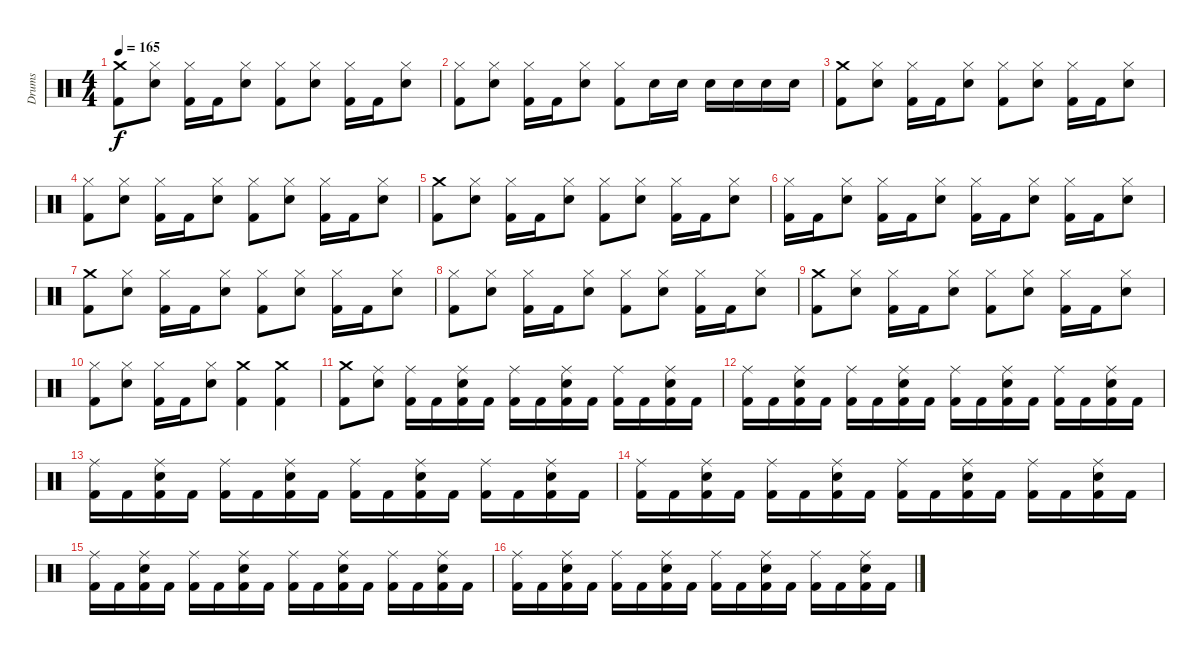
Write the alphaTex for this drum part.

\track ("Drums" "Drums") {instrument percussion}
\staff {score}
\articulation defaults
\ts (4 4)
\tempo 165
\clef neutral
\ks c
("Crash medium (hit)" "Kick (hit) 2").8{dy f} ("Hi-Hat (closed)" "Snare (hit) 2").8 ("Hi-Hat (closed)" "Kick (hit) 2").16 "Kick (hit) 2".16 ("Hi-Hat (closed)" "Snare (hit) 2").8 ("Hi-Hat (closed)" "Kick (hit) 2").8 ("Hi-Hat (closed)" "Snare (hit) 2").8 ("Hi-Hat (closed)" "Kick (hit) 2").16 "Kick (hit) 2".16 ("Hi-Hat (closed)" "Snare (hit) 2").8 |
("Hi-Hat (closed)" "Kick (hit) 2").8 ("Hi-Hat (closed)" "Snare (hit) 2").8 ("Hi-Hat (closed)" "Kick (hit) 2").16 "Kick (hit) 2".16 ("Hi-Hat (closed)" "Snare (hit) 2").8 ("Hi-Hat (closed)" "Kick (hit) 2").8 "Snare (hit) 2".16 "Snare (hit) 2".16 "Snare (hit) 2".16 "Snare (hit) 2".16 "Snare (hit) 2".16 "Snare (hit) 2".16 |
("Crash medium (hit)" "Kick (hit) 2").8 ("Hi-Hat (closed)" "Snare (hit) 2").8 ("Hi-Hat (closed)" "Kick (hit) 2").16 "Kick (hit) 2".16 ("Hi-Hat (closed)" "Snare (hit) 2").8 ("Hi-Hat (closed)" "Kick (hit) 2").8 ("Hi-Hat (closed)" "Snare (hit) 2").8 ("Hi-Hat (closed)" "Kick (hit) 2").16 "Kick (hit) 2".16 ("Hi-Hat (closed)" "Snare (hit) 2").8 |
("Hi-Hat (closed)" "Kick (hit) 2").8 ("Hi-Hat (closed)" "Snare (hit) 2").8 ("Hi-Hat (closed)" "Kick (hit) 2").16 "Kick (hit) 2".16 ("Hi-Hat (closed)" "Snare (hit) 2").8 ("Hi-Hat (closed)" "Kick (hit) 2").8 ("Hi-Hat (closed)" "Snare (hit) 2").8 ("Hi-Hat (closed)" "Kick (hit) 2").16 "Kick (hit) 2".16 ("Hi-Hat (closed)" "Snare (hit) 2").8 |
("Crash medium (hit)" "Kick (hit) 2").8 ("Hi-Hat (closed)" "Snare (hit) 2").8 ("Hi-Hat (closed)" "Kick (hit) 2").16 "Kick (hit) 2".16 ("Hi-Hat (closed)" "Snare (hit) 2").8 ("Hi-Hat (closed)" "Kick (hit) 2").8 ("Hi-Hat (closed)" "Snare (hit) 2").8 ("Hi-Hat (closed)" "Kick (hit) 2").16 "Kick (hit) 2".16 ("Hi-Hat (closed)" "Snare (hit) 2").8 |
("Hi-Hat (closed)" "Kick (hit) 2").16 "Kick (hit) 2".16 ("Hi-Hat (closed)" "Snare (hit) 2").8 ("Hi-Hat (closed)" "Kick (hit) 2").16 "Kick (hit) 2".16 ("Hi-Hat (closed)" "Snare (hit) 2").8 ("Hi-Hat (closed)" "Kick (hit) 2").16 "Kick (hit) 2".16 ("Hi-Hat (closed)" "Snare (hit) 2").8 ("Hi-Hat (closed)" "Kick (hit) 2").16 "Kick (hit) 2".16 ("Hi-Hat (closed)" "Snare (hit) 2").8 |
("Crash medium (hit)" "Kick (hit) 2").8 ("Hi-Hat (closed)" "Snare (hit) 2").8 ("Hi-Hat (closed)" "Kick (hit) 2").16 "Kick (hit) 2".16 ("Hi-Hat (closed)" "Snare (hit) 2").8 ("Hi-Hat (closed)" "Kick (hit) 2").8 ("Hi-Hat (closed)" "Snare (hit) 2").8 ("Hi-Hat (closed)" "Kick (hit) 2").16 "Kick (hit) 2".16 ("Hi-Hat (closed)" "Snare (hit) 2").8 |
("Hi-Hat (closed)" "Kick (hit) 2").8 ("Hi-Hat (closed)" "Snare (hit) 2").8 ("Hi-Hat (closed)" "Kick (hit) 2").16 "Kick (hit) 2".16 ("Hi-Hat (closed)" "Snare (hit) 2").8 ("Hi-Hat (closed)" "Kick (hit) 2").8 ("Hi-Hat (closed)" "Snare (hit) 2").8 ("Hi-Hat (closed)" "Kick (hit) 2").16 "Kick (hit) 2".16 ("Hi-Hat (closed)" "Snare (hit) 2").8 |
("Crash medium (hit)" "Kick (hit) 2").8 ("Hi-Hat (closed)" "Snare (hit) 2").8 ("Hi-Hat (closed)" "Kick (hit) 2").16 "Kick (hit) 2".16 ("Hi-Hat (closed)" "Snare (hit) 2").8 ("Hi-Hat (closed)" "Kick (hit) 2").8 ("Hi-Hat (closed)" "Snare (hit) 2").8 ("Hi-Hat (closed)" "Kick (hit) 2").16 "Kick (hit) 2".16 ("Hi-Hat (closed)" "Snare (hit) 2").8 |
("Hi-Hat (closed)" "Kick (hit) 2").8 ("Hi-Hat (closed)" "Snare (hit) 2").8 ("Hi-Hat (closed)" "Kick (hit) 2").16 "Kick (hit) 2".16 ("Hi-Hat (closed)" "Snare (hit) 2").8 ("Crash medium (hit)" "Kick (hit) 2").4 ("Crash medium (hit)" "Kick (hit) 2").4 |
("Crash medium (hit)" "Kick (hit) 2").8 ("Ride (middle)" "Snare (hit) 2").8 ("Ride (middle)" "Kick (hit) 2").16 "Kick (hit) 2".16 ("Ride (middle)" "Snare (hit) 2" "Kick (hit) 2").16 "Kick (hit) 2".16 ("Ride (middle)" "Kick (hit) 2").16 "Kick (hit) 2".16 ("Ride (middle)" "Snare (hit) 2" "Kick (hit) 2").16 "Kick (hit) 2".16 ("Ride (middle)" "Kick (hit) 2").16 "Kick (hit) 2".16 ("Ride (middle)" "Snare (hit) 2" "Kick (hit) 2").16 "Kick (hit) 2".16 |
("Ride (middle)" "Kick (hit) 2").16 "Kick (hit) 2".16 ("Ride (middle)" "Snare (hit) 2" "Kick (hit) 2").16 "Kick (hit) 2".16 ("Ride (middle)" "Kick (hit) 2").16 "Kick (hit) 2".16 ("Ride (middle)" "Snare (hit) 2" "Kick (hit) 2").16 "Kick (hit) 2".16 ("Ride (middle)" "Kick (hit) 2").16 "Kick (hit) 2".16 ("Ride (middle)" "Snare (hit) 2" "Kick (hit) 2").16 "Kick (hit) 2".16 ("Ride (middle)" "Kick (hit) 2").16 "Kick (hit) 2".16 ("Ride (middle)" "Snare (hit) 2" "Kick (hit) 2").16 "Kick (hit) 2".16 |
("Ride (middle)" "Kick (hit) 2").16 "Kick (hit) 2".16 ("Ride (middle)" "Snare (hit) 2" "Kick (hit) 2").16 "Kick (hit) 2".16 ("Ride (middle)" "Kick (hit) 2").16 "Kick (hit) 2".16 ("Ride (middle)" "Snare (hit) 2" "Kick (hit) 2").16 "Kick (hit) 2".16 ("Ride (middle)" "Kick (hit) 2").16 "Kick (hit) 2".16 ("Ride (middle)" "Snare (hit) 2" "Kick (hit) 2").16 "Kick (hit) 2".16 ("Ride (middle)" "Kick (hit) 2").16 "Kick (hit) 2".16 ("Ride (middle)" "Snare (hit) 2" "Kick (hit) 2").16 "Kick (hit) 2".16 |
("Ride (middle)" "Kick (hit) 2").16 "Kick (hit) 2".16 ("Ride (middle)" "Snare (hit) 2" "Kick (hit) 2").16 "Kick (hit) 2".16 ("Ride (middle)" "Kick (hit) 2").16 "Kick (hit) 2".16 ("Ride (middle)" "Snare (hit) 2" "Kick (hit) 2").16 "Kick (hit) 2".16 ("Ride (middle)" "Kick (hit) 2").16 "Kick (hit) 2".16 ("Ride (middle)" "Snare (hit) 2" "Kick (hit) 2").16 "Kick (hit) 2".16 ("Ride (middle)" "Kick (hit) 2").16 "Kick (hit) 2".16 ("Ride (middle)" "Snare (hit) 2" "Kick (hit) 2").16 "Kick (hit) 2".16 |
("Ride (middle)" "Kick (hit) 2").16 "Kick (hit) 2".16 ("Ride (middle)" "Snare (hit) 2" "Kick (hit) 2").16 "Kick (hit) 2".16 ("Ride (middle)" "Kick (hit) 2").16 "Kick (hit) 2".16 ("Ride (middle)" "Snare (hit) 2" "Kick (hit) 2").16 "Kick (hit) 2".16 ("Ride (middle)" "Kick (hit) 2").16 "Kick (hit) 2".16 ("Ride (middle)" "Snare (hit) 2" "Kick (hit) 2").16 "Kick (hit) 2".16 ("Ride (middle)" "Kick (hit) 2").16 "Kick (hit) 2".16 ("Ride (middle)" "Snare (hit) 2" "Kick (hit) 2").16 "Kick (hit) 2".16 |
("Ride (middle)" "Kick (hit) 2").16 "Kick (hit) 2".16 ("Ride (middle)" "Snare (hit) 2" "Kick (hit) 2").16 "Kick (hit) 2".16 ("Ride (middle)" "Kick (hit) 2").16 "Kick (hit) 2".16 ("Ride (middle)" "Snare (hit) 2" "Kick (hit) 2").16 "Kick (hit) 2".16 ("Ride (middle)" "Kick (hit) 2").16 "Kick (hit) 2".16 ("Ride (middle)" "Snare (hit) 2" "Kick (hit) 2").16 "Kick (hit) 2".16 ("Ride (middle)" "Kick (hit) 2").16 "Kick (hit) 2".16 ("Ride (middle)" "Snare (hit) 2" "Kick (hit) 2").16 "Kick (hit) 2".16
